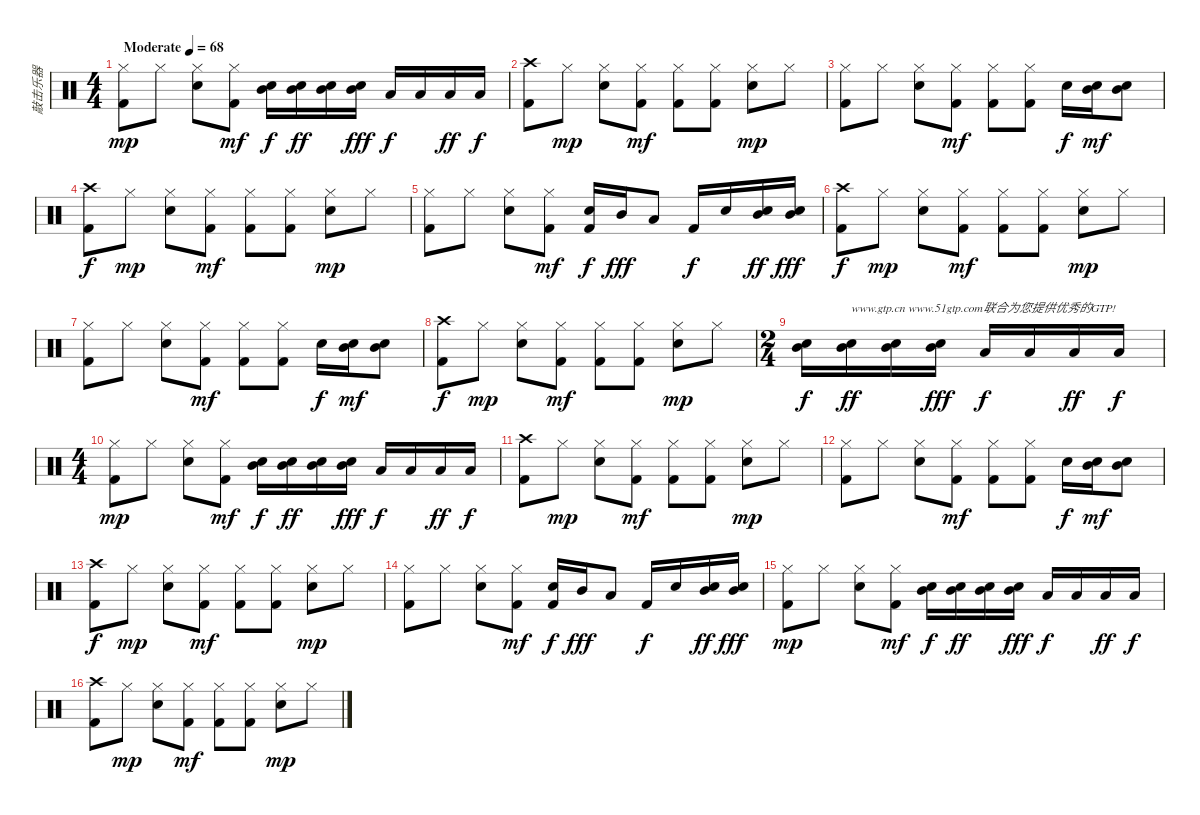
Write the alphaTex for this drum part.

\track ("敲击乐器" "敲击乐器") {instrument percussion}
\staff {score}
\articulation defaults
\ts (4 4)
\tempo (68 "Moderate")
\clef neutral
\ks c
("Hi-Hat (closed)" "Kick (hit) 2").8{dy mp} "Hi-Hat (closed)".8 ("Hi-Hat (closed)" "Electric Snare (hit)").8 ("Hi-Hat (closed)" "Kick (hit) 2").8{dy mf} ("Mid Tom (hit)" "Snare (hit) 2").16{dy f} ("Mid Tom (hit)" "Snare (hit) 2").16{dy ff} ("Mid Tom (hit)" "Snare (hit) 2").16 ("Mid Tom (hit)" "Snare (hit) 2").16{dy fff} "Low Tom (hit)".16{dy f} "Low Tom (hit)".16 "Low Tom (hit)".16{dy ff} "Low Tom (hit)".16{dy f} |
("Crash high (hit)" "Kick (hit) 2").8 "Hi-Hat (closed)".8{dy mp} ("Hi-Hat (closed)" "Electric Snare (hit)").8 ("Hi-Hat (closed)" "Kick (hit) 2").8{dy mf} ("Hi-Hat (closed)" "Kick (hit) 2").8 ("Hi-Hat (closed)" "Kick (hit) 2").8 ("Hi-Hat (closed)" "Electric Snare (hit)").8{dy mp} "Hi-Hat (closed)".8 |
("Hi-Hat (closed)" "Kick (hit) 2").8 "Hi-Hat (closed)".8 ("Hi-Hat (closed)" "Electric Snare (hit)").8 ("Hi-Hat (closed)" "Kick (hit) 2").8{dy mf} ("Hi-Hat (closed)" "Kick (hit) 2").8 ("Hi-Hat (closed)" "Kick (hit) 2").8 "Electric Snare (hit)".16{dy f} ("Mid Tom (hit)" "Snare (hit) 2").16{dy mf} ("Mid Tom (hit)" "Snare (hit) 2").8 |
("Crash high (hit)" "Kick (hit) 2").8{dy f} "Hi-Hat (closed)".8{dy mp} ("Hi-Hat (closed)" "Electric Snare (hit)").8 ("Hi-Hat (closed)" "Kick (hit) 2").8{dy mf} ("Hi-Hat (closed)" "Kick (hit) 2").8 ("Hi-Hat (closed)" "Kick (hit) 2").8 ("Hi-Hat (closed)" "Electric Snare (hit)").8{dy mp} "Hi-Hat (closed)".8 |
("Hi-Hat (closed)" "Kick (hit) 2").8 "Hi-Hat (closed)".8 ("Hi-Hat (closed)" "Electric Snare (hit)").8 ("Hi-Hat (closed)" "Kick (hit) 2").8{dy mf} ("Electric Snare (hit)" "Kick (hit) 2").16{dy f} "Mid Tom (hit)".16{dy fff} "Low Tom (hit)".8 "Kick (hit) 2".16{dy f} "Snare (hit) 2".16 ("Mid Tom (hit)" "Snare (hit) 2").16{dy ff} ("Mid Tom (hit)" "Snare (hit) 2").16{dy fff} |
("Crash high (hit)" "Kick (hit) 2").8{dy f} "Hi-Hat (closed)".8{dy mp} ("Hi-Hat (closed)" "Electric Snare (hit)").8 ("Hi-Hat (closed)" "Kick (hit) 2").8{dy mf} ("Hi-Hat (closed)" "Kick (hit) 2").8 ("Hi-Hat (closed)" "Kick (hit) 2").8 ("Hi-Hat (closed)" "Electric Snare (hit)").8{dy mp} "Hi-Hat (closed)".8 |
("Hi-Hat (closed)" "Kick (hit) 2").8 "Hi-Hat (closed)".8 ("Hi-Hat (closed)" "Electric Snare (hit)").8 ("Hi-Hat (closed)" "Kick (hit) 2").8{dy mf} ("Hi-Hat (closed)" "Kick (hit) 2").8 ("Hi-Hat (closed)" "Kick (hit) 2").8 "Electric Snare (hit)".16{dy f} ("Mid Tom (hit)" "Snare (hit) 2").16{dy mf} ("Mid Tom (hit)" "Snare (hit) 2").8 |
("Crash high (hit)" "Kick (hit) 2").8{dy f} "Hi-Hat (closed)".8{dy mp} ("Hi-Hat (closed)" "Electric Snare (hit)").8 ("Hi-Hat (closed)" "Kick (hit) 2").8{dy mf} ("Hi-Hat (closed)" "Kick (hit) 2").8 ("Hi-Hat (closed)" "Kick (hit) 2").8 ("Hi-Hat (closed)" "Electric Snare (hit)").8{dy mp} "Hi-Hat (closed)".8 |
\ts (2 4)
("Mid Tom (hit)" "Snare (hit) 2").16{dy f} ("Mid Tom (hit)" "Snare (hit) 2").16{txt "www.gtp.cn www.51gtp.com联合为您提供优秀的GTP!" dy ff} ("Mid Tom (hit)" "Snare (hit) 2").16 ("Mid Tom (hit)" "Snare (hit) 2").16{dy fff} "Low Tom (hit)".16{dy f} "Low Tom (hit)".16 "Low Tom (hit)".16{dy ff} "Low Tom (hit)".16{dy f} |
\ts (4 4)
("Hi-Hat (closed)" "Kick (hit) 2").8{dy mp} "Hi-Hat (closed)".8 ("Hi-Hat (closed)" "Electric Snare (hit)").8 ("Hi-Hat (closed)" "Kick (hit) 2").8{dy mf} ("Mid Tom (hit)" "Snare (hit) 2").16{dy f} ("Mid Tom (hit)" "Snare (hit) 2").16{dy ff} ("Mid Tom (hit)" "Snare (hit) 2").16 ("Mid Tom (hit)" "Snare (hit) 2").16{dy fff} "Low Tom (hit)".16{dy f} "Low Tom (hit)".16 "Low Tom (hit)".16{dy ff} "Low Tom (hit)".16{dy f} |
("Crash high (hit)" "Kick (hit) 2").8 "Hi-Hat (closed)".8{dy mp} ("Hi-Hat (closed)" "Electric Snare (hit)").8 ("Hi-Hat (closed)" "Kick (hit) 2").8{dy mf} ("Hi-Hat (closed)" "Kick (hit) 2").8 ("Hi-Hat (closed)" "Kick (hit) 2").8 ("Hi-Hat (closed)" "Electric Snare (hit)").8{dy mp} "Hi-Hat (closed)".8 |
("Hi-Hat (closed)" "Kick (hit) 2").8 "Hi-Hat (closed)".8 ("Hi-Hat (closed)" "Electric Snare (hit)").8 ("Hi-Hat (closed)" "Kick (hit) 2").8{dy mf} ("Hi-Hat (closed)" "Kick (hit) 2").8 ("Hi-Hat (closed)" "Kick (hit) 2").8 "Electric Snare (hit)".16{dy f} ("Mid Tom (hit)" "Snare (hit) 2").16{dy mf} ("Mid Tom (hit)" "Snare (hit) 2").8 |
("Crash high (hit)" "Kick (hit) 2").8{dy f} "Hi-Hat (closed)".8{dy mp} ("Hi-Hat (closed)" "Electric Snare (hit)").8 ("Hi-Hat (closed)" "Kick (hit) 2").8{dy mf} ("Hi-Hat (closed)" "Kick (hit) 2").8 ("Hi-Hat (closed)" "Kick (hit) 2").8 ("Hi-Hat (closed)" "Electric Snare (hit)").8{dy mp} "Hi-Hat (closed)".8 |
("Hi-Hat (closed)" "Kick (hit) 2").8 "Hi-Hat (closed)".8 ("Hi-Hat (closed)" "Electric Snare (hit)").8 ("Hi-Hat (closed)" "Kick (hit) 2").8{dy mf} ("Electric Snare (hit)" "Kick (hit) 2").16{dy f} "Mid Tom (hit)".16{dy fff} "Low Tom (hit)".8 "Kick (hit) 2".16{dy f} "Snare (hit) 2".16 ("Mid Tom (hit)" "Snare (hit) 2").16{dy ff} ("Mid Tom (hit)" "Snare (hit) 2").16{dy fff} |
("Hi-Hat (closed)" "Kick (hit) 2").8{dy mp} "Hi-Hat (closed)".8 ("Hi-Hat (closed)" "Electric Snare (hit)").8 ("Hi-Hat (closed)" "Kick (hit) 2").8{dy mf} ("Mid Tom (hit)" "Snare (hit) 2").16{dy f} ("Mid Tom (hit)" "Snare (hit) 2").16{dy ff} ("Mid Tom (hit)" "Snare (hit) 2").16 ("Mid Tom (hit)" "Snare (hit) 2").16{dy fff} "Low Tom (hit)".16{dy f} "Low Tom (hit)".16 "Low Tom (hit)".16{dy ff} "Low Tom (hit)".16{dy f} |
("Crash high (hit)" "Kick (hit) 2").8 "Hi-Hat (closed)".8{dy mp} ("Hi-Hat (closed)" "Electric Snare (hit)").8 ("Hi-Hat (closed)" "Kick (hit) 2").8{dy mf} ("Hi-Hat (closed)" "Kick (hit) 2").8 ("Hi-Hat (closed)" "Kick (hit) 2").8 ("Hi-Hat (closed)" "Electric Snare (hit)").8{dy mp} "Hi-Hat (closed)".8
